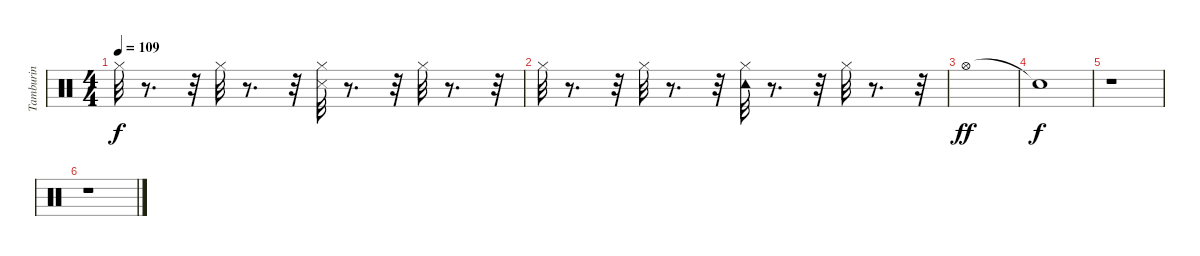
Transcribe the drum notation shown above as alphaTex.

\track ("Tamburin" "Tamburin") {instrument percussion}
\staff {score}
\articulation defaults
\ts (4 4)
\tempo 109
\clef neutral
\ks c "Hi-Hat (closed)".32{dy f}
r.8{d} r.32 "Hi-Hat (closed)".32 r.8{d} r.32 ("Snare (side stick) 3" "Hi-Hat (closed)").32 r.8{d} r.32 "Hi-Hat (closed)".32 r.8{d} r.32 |
"Hi-Hat (closed)".32 r.8{d} r.32 "Hi-Hat (closed)".32 r.8{d} r.32 ("Hi-Hat (closed)" "Tambourine (hit)").32 r.8{d} r.32 "Hi-Hat (closed)".32 r.8{d} r.32 |
"Hi-Hat (open)".1{dy ff} |
"Snare (hit)"{t}.1{dy f} |
r.1 |
r.1
